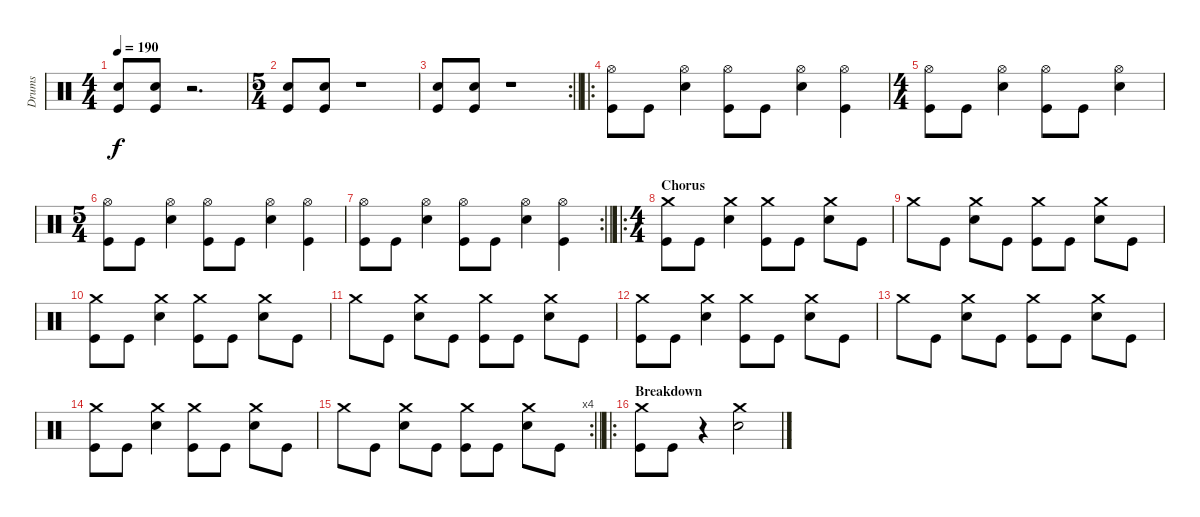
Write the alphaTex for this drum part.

\track ("Drums" "Drums") {instrument percussion}
\staff {score}
\articulation defaults
\ts (4 4)
\tempo 190
\clef neutral
\ks c
("Snare (hit) 2" "Kick (hit)").8{dy f} ("Snare (hit) 2" "Kick (hit)").8 r.2{d} |
\ts (5 4)
("Snare (hit) 2" "Kick (hit)").8 ("Snare (hit) 2" "Kick (hit)").8 r.1 |
\rc 2
\barLineRight lightlight
("Snare (hit) 2" "Kick (hit)").8 ("Snare (hit) 2" "Kick (hit)").8 r.1 |
\ro
("Hi-Hat (open)" "Kick (hit)").8 "Kick (hit)".8 ("Hi-Hat (open)" "Snare (hit) 2").4 ("Hi-Hat (open)" "Kick (hit)").8 "Kick (hit)".8 ("Hi-Hat (open)" "Snare (hit) 2").4 ("Hi-Hat (open)" "Kick (hit)").4 |
\ts (4 4)
("Hi-Hat (open)" "Kick (hit)").8 "Kick (hit)".8 ("Hi-Hat (open)" "Snare (hit) 2").4 ("Hi-Hat (open)" "Kick (hit)").8 "Kick (hit)".8 ("Hi-Hat (open)" "Snare (hit) 2").4 |
\ts (5 4)
("Hi-Hat (open)" "Kick (hit)").8 "Kick (hit)".8 ("Hi-Hat (open)" "Snare (hit) 2").4 ("Hi-Hat (open)" "Kick (hit)").8 "Kick (hit)".8 ("Hi-Hat (open)" "Snare (hit) 2").4 ("Hi-Hat (open)" "Kick (hit)").4 |
\rc 2
\barLineRight lightlight
("Hi-Hat (open)" "Kick (hit)").8 "Kick (hit)".8 ("Hi-Hat (open)" "Snare (hit) 2").4 ("Hi-Hat (open)" "Kick (hit)").8 "Kick (hit)".8 ("Hi-Hat (open)" "Snare (hit) 2").4 ("Hi-Hat (open)" "Kick (hit)").4 |
\ro
\ts (4 4)
\section ("" "Chorus")
("Crash medium (hit)" "Kick (hit)").8 "Kick (hit)".8 ("Crash medium (hit)" "Snare (hit) 2").4 ("Crash medium (hit)" "Kick (hit)").8 "Kick (hit)".8 ("Crash medium (hit)" "Snare (hit) 2").8 "Kick (hit)".8 |
"Crash medium (hit)".8 "Kick (hit)".8 ("Crash medium (hit)" "Snare (hit) 2").8 "Kick (hit)".8 ("Crash medium (hit)" "Kick (hit)").8 "Kick (hit)".8 ("Crash medium (hit)" "Snare (hit) 2").8 "Kick (hit)".8 |
("Crash medium (hit)" "Kick (hit)").8 "Kick (hit)".8 ("Crash medium (hit)" "Snare (hit) 2").4 ("Crash medium (hit)" "Kick (hit)").8 "Kick (hit)".8 ("Crash medium (hit)" "Snare (hit) 2").8 "Kick (hit)".8 |
"Crash medium (hit)".8 "Kick (hit)".8 ("Crash medium (hit)" "Snare (hit) 2").8 "Kick (hit)".8 ("Crash medium (hit)" "Kick (hit)").8 "Kick (hit)".8 ("Crash medium (hit)" "Snare (hit) 2").8 "Kick (hit)".8 |
("Crash medium (hit)" "Kick (hit)").8 "Kick (hit)".8 ("Crash medium (hit)" "Snare (hit) 2").4 ("Crash medium (hit)" "Kick (hit)").8 "Kick (hit)".8 ("Crash medium (hit)" "Snare (hit) 2").8 "Kick (hit)".8 |
"Crash medium (hit)".8 "Kick (hit)".8 ("Crash medium (hit)" "Snare (hit) 2").8 "Kick (hit)".8 ("Crash medium (hit)" "Kick (hit)").8 "Kick (hit)".8 ("Crash medium (hit)" "Snare (hit) 2").8 "Kick (hit)".8 |
("Crash medium (hit)" "Kick (hit)").8 "Kick (hit)".8 ("Crash medium (hit)" "Snare (hit) 2").4 ("Crash medium (hit)" "Kick (hit)").8 "Kick (hit)".8 ("Crash medium (hit)" "Snare (hit) 2").8 "Kick (hit)".8 |
\rc 4
\barLineRight lightlight "Crash medium (hit)".8 "Kick (hit)".8
("Crash medium (hit)" "Snare (hit) 2").8 "Kick (hit)".8 ("Crash medium (hit)" "Kick (hit)").8 "Kick (hit)".8 ("Crash medium (hit)" "Snare (hit) 2").8 "Kick (hit)".8 |
\ro
\section ("" "Breakdown")
("Crash medium (hit)" "Kick (hit)").8 "Kick (hit)".8 r.4 ("Crash medium (hit)" "Snare (hit) 2").2
